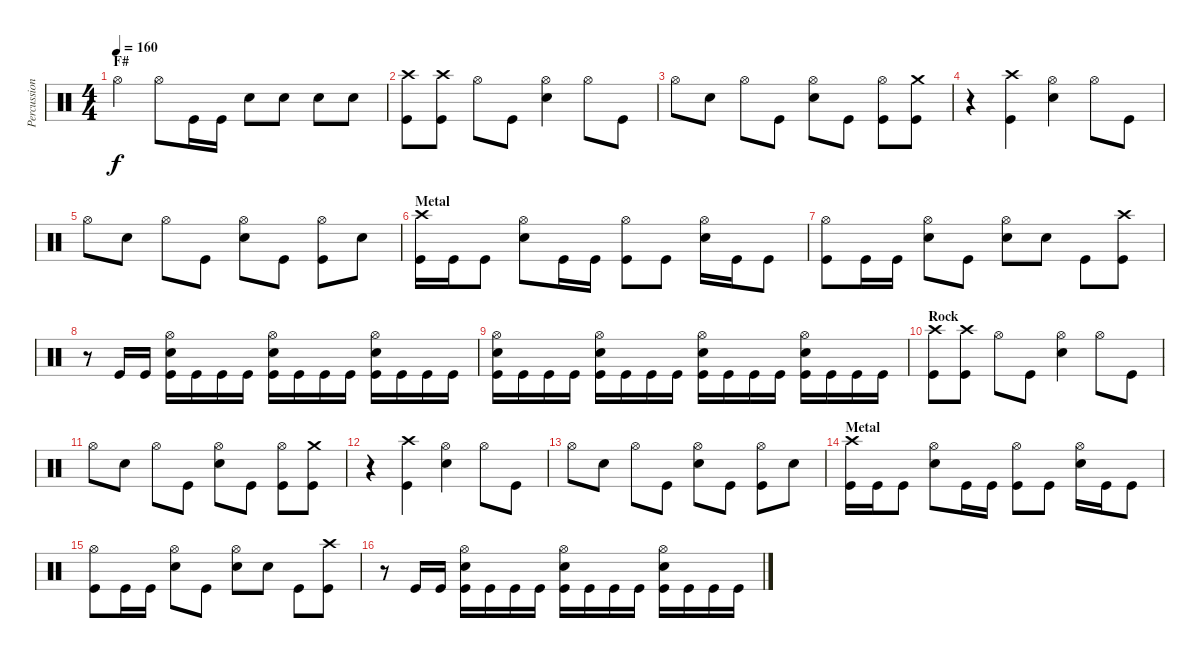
\track ("Percussion" "Percussion") {instrument percussion}
\staff {score}
\articulation defaults
\ts (4 4)
\section ("" "F#")
\tempo 160
\clef neutral
\ks c "Hi-Hat (open)".4{dy f} "Hi-Hat (open)".8 "Kick (hit)".16 "Kick (hit)".16 "Electric Snare (hit)".8 "Electric Snare (hit)".8 "Electric Snare (hit)".8 "Electric Snare (hit)".8
|
("Crash high (hit)" "Kick (hit)").8 ("Crash high (hit)" "Kick (hit)").8 "Hi-Hat (open)".8 "Kick (hit)".8 ("Hi-Hat (open)" "Electric Snare (hit)").4 "Hi-Hat (open)".8 "Kick (hit)".8 |
"Hi-Hat (open)".8 "Electric Snare (hit)".8 "Hi-Hat (open)".8 "Kick (hit)".8 ("Hi-Hat (open)" "Electric Snare (hit)").8 "Kick (hit)".8 ("Hi-Hat (open)" "Kick (hit)").8 ("Crash medium (hit)" "Kick (hit)").8 |
r.4 ("Crash high (hit)" "Kick (hit)").4 ("Hi-Hat (open)" "Electric Snare (hit)").4 "Hi-Hat (open)".8 "Kick (hit)".8 |
"Hi-Hat (open)".8 "Electric Snare (hit)".8 "Hi-Hat (open)".8 "Kick (hit)".8 ("Hi-Hat (open)" "Electric Snare (hit)").8 "Kick (hit)".8 ("Hi-Hat (open)" "Kick (hit)").8 "Electric Snare (hit)".8 |
\section ("" "Metal")
("Crash high (hit)" "Kick (hit)").16 "Kick (hit)".16 "Kick (hit)".8 ("Hi-Hat (open)" "Electric Snare (hit)").8 "Kick (hit)".16 "Kick (hit)".16 ("Hi-Hat (open)" "Kick (hit)").8 "Kick (hit)".8 ("Hi-Hat (open)" "Electric Snare (hit)").16 "Kick (hit)".16 "Kick (hit)".8 |
("Hi-Hat (open)" "Kick (hit)").8 "Kick (hit)".16 "Kick (hit)".16 ("Hi-Hat (open)" "Electric Snare (hit)").8 "Kick (hit)".8 ("Hi-Hat (open)" "Electric Snare (hit)").8 "Electric Snare (hit)".8 "Kick (hit)".8 ("Crash high (hit)" "Kick (hit)").8 |
r.8 "Kick (hit)".16 "Kick (hit)".16 ("Hi-Hat (open)" "Electric Snare (hit)" "Kick (hit)").16 "Kick (hit)".16 "Kick (hit)".16 "Kick (hit)".16 ("Hi-Hat (open)" "Electric Snare (hit)" "Kick (hit)").16 "Kick (hit)".16 "Kick (hit)".16 "Kick (hit)".16 ("Hi-Hat (open)" "Electric Snare (hit)" "Kick (hit)").16 "Kick (hit)".16 "Kick (hit)".16 "Kick (hit)".16 |
("Hi-Hat (open)" "Electric Snare (hit)" "Kick (hit)").16 "Kick (hit)".16 "Kick (hit)".16 "Kick (hit)".16 ("Hi-Hat (open)" "Electric Snare (hit)" "Kick (hit)").16 "Kick (hit)".16 "Kick (hit)".16 "Kick (hit)".16 ("Hi-Hat (open)" "Electric Snare (hit)" "Kick (hit)").16 "Kick (hit)".16 "Kick (hit)".16 "Kick (hit)".16 ("Hi-Hat (open)" "Electric Snare (hit)" "Kick (hit)").16 "Kick (hit)".16 "Kick (hit)".16 "Kick (hit)".16 |
\section ("" "Rock")
("Crash high (hit)" "Kick (hit)").8 ("Crash high (hit)" "Kick (hit)").8 "Hi-Hat (open)".8 "Kick (hit)".8 ("Hi-Hat (open)" "Electric Snare (hit)").4 "Hi-Hat (open)".8 "Kick (hit)".8 |
"Hi-Hat (open)".8 "Electric Snare (hit)".8 "Hi-Hat (open)".8 "Kick (hit)".8 ("Hi-Hat (open)" "Electric Snare (hit)").8 "Kick (hit)".8 ("Hi-Hat (open)" "Kick (hit)").8 ("Crash medium (hit)" "Kick (hit)").8 |
r.4 ("Crash high (hit)" "Kick (hit)").4 ("Hi-Hat (open)" "Electric Snare (hit)").4 "Hi-Hat (open)".8 "Kick (hit)".8 |
"Hi-Hat (open)".8 "Electric Snare (hit)".8 "Hi-Hat (open)".8 "Kick (hit)".8 ("Hi-Hat (open)" "Electric Snare (hit)").8 "Kick (hit)".8 ("Hi-Hat (open)" "Kick (hit)").8 "Electric Snare (hit)".8 |
\section ("" "Metal")
("Crash high (hit)" "Kick (hit)").16 "Kick (hit)".16 "Kick (hit)".8 ("Hi-Hat (open)" "Electric Snare (hit)").8 "Kick (hit)".16 "Kick (hit)".16 ("Hi-Hat (open)" "Kick (hit)").8 "Kick (hit)".8 ("Hi-Hat (open)" "Electric Snare (hit)").16 "Kick (hit)".16 "Kick (hit)".8 |
("Hi-Hat (open)" "Kick (hit)").8 "Kick (hit)".16 "Kick (hit)".16 ("Hi-Hat (open)" "Electric Snare (hit)").8 "Kick (hit)".8 ("Hi-Hat (open)" "Electric Snare (hit)").8 "Electric Snare (hit)".8 "Kick (hit)".8 ("Crash high (hit)" "Kick (hit)").8 |
r.8 "Kick (hit)".16 "Kick (hit)".16 ("Hi-Hat (open)" "Electric Snare (hit)" "Kick (hit)").16 "Kick (hit)".16 "Kick (hit)".16 "Kick (hit)".16 ("Hi-Hat (open)" "Electric Snare (hit)" "Kick (hit)").16 "Kick (hit)".16 "Kick (hit)".16 "Kick (hit)".16 ("Hi-Hat (open)" "Electric Snare (hit)" "Kick (hit)").16 "Kick (hit)".16 "Kick (hit)".16 "Kick (hit)".16
